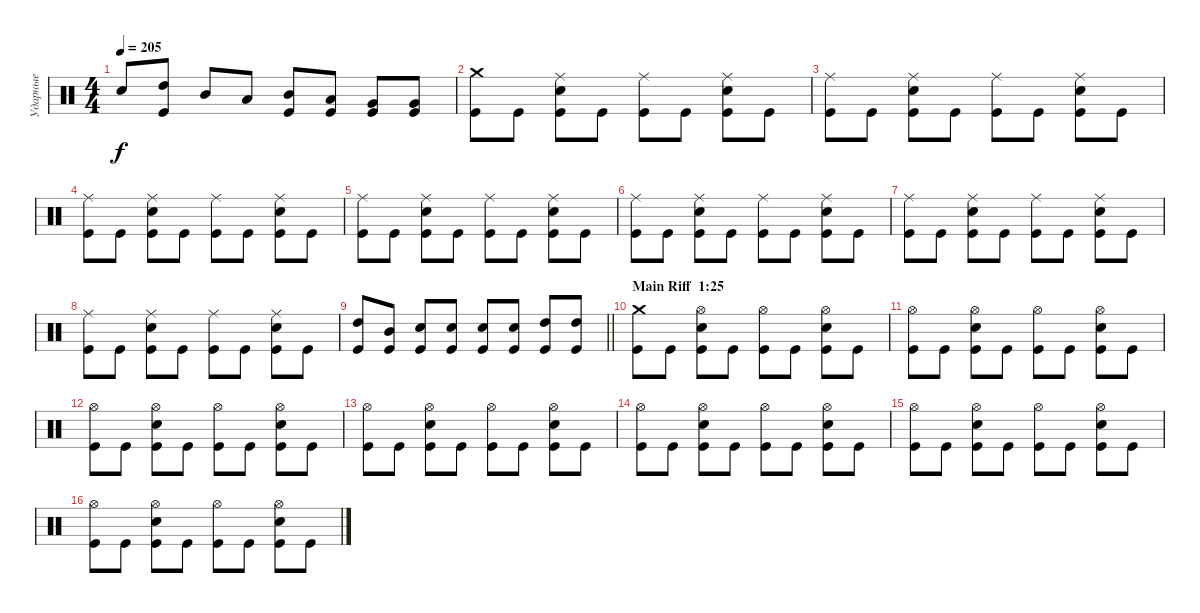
\track ("Ударные" "Ударные") {instrument percussion}
\staff {score}
\articulation defaults
\ts (4 4)
\tempo 205
\clef neutral
\ks c "Snare (hit) 2".8{dy f}
("High Tom (hit)" "Kick (hit)").8 "Mid Tom (hit)".8 "Low Tom (hit)".8 ("Mid Tom (hit)" "Kick (hit)").8 ("Low Tom (hit)" "Kick (hit)").8 ("Very Low Tom (hit)" "Kick (hit)").8 ("Very Low Tom (hit)" "Kick (hit)").8 |
("Crash medium (hit)" "Kick (hit)").8 "Kick (hit)".8 ("Ride (middle)" "Snare (hit) 2" "Kick (hit)").8 "Kick (hit)".8 ("Ride (middle)" "Kick (hit)").8 "Kick (hit)".8 ("Ride (middle)" "Snare (hit) 2" "Kick (hit)").8 "Kick (hit)".8 |
("Ride (middle)" "Kick (hit)").8 "Kick (hit)".8 ("Ride (middle)" "Snare (hit) 2" "Kick (hit)").8 "Kick (hit)".8 ("Ride (middle)" "Kick (hit)").8 "Kick (hit)".8 ("Ride (middle)" "Snare (hit) 2" "Kick (hit)").8 "Kick (hit)".8 |
("Ride (middle)" "Kick (hit)").8 "Kick (hit)".8 ("Ride (middle)" "Snare (hit) 2" "Kick (hit)").8 "Kick (hit)".8 ("Ride (middle)" "Kick (hit)").8 "Kick (hit)".8 ("Ride (middle)" "Snare (hit) 2" "Kick (hit)").8 "Kick (hit)".8 |
("Ride (middle)" "Kick (hit)").8 "Kick (hit)".8 ("Ride (middle)" "Snare (hit) 2" "Kick (hit)").8 "Kick (hit)".8 ("Ride (middle)" "Kick (hit)").8 "Kick (hit)".8 ("Ride (middle)" "Snare (hit) 2" "Kick (hit)").8 "Kick (hit)".8 |
("Ride (middle)" "Kick (hit)").8 "Kick (hit)".8 ("Ride (middle)" "Snare (hit) 2" "Kick (hit)").8 "Kick (hit)".8 ("Ride (middle)" "Kick (hit)").8 "Kick (hit)".8 ("Ride (middle)" "Snare (hit) 2" "Kick (hit)").8 "Kick (hit)".8 |
("Ride (middle)" "Kick (hit)").8 "Kick (hit)".8 ("Ride (middle)" "Snare (hit) 2" "Kick (hit)").8 "Kick (hit)".8 ("Ride (middle)" "Kick (hit)").8 "Kick (hit)".8 ("Ride (middle)" "Snare (hit) 2" "Kick (hit)").8 "Kick (hit)".8 |
("Ride (middle)" "Kick (hit)").8 "Kick (hit)".8 ("Ride (middle)" "Snare (hit) 2" "Kick (hit)").8 "Kick (hit)".8 ("Ride (middle)" "Kick (hit)").8 "Kick (hit)".8 ("Ride (middle)" "Snare (hit) 2" "Kick (hit)").8 "Kick (hit)".8 |
\barLineRight lightlight
("High Tom (hit)" "Kick (hit)").8 ("Mid Tom (hit)" "Kick (hit)").8 ("Snare (hit) 2" "Kick (hit)").8 ("Snare (hit) 2" "Kick (hit)").8 ("Snare (hit) 2" "Kick (hit)").8 ("Snare (hit) 2" "Kick (hit)").8 ("High Tom (hit)" "Kick (hit)").8 ("High Tom (hit)" "Kick (hit)").8 |
\section ("" "Main Riff  1:25")
("Crash medium (hit)" "Kick (hit)").8 "Kick (hit)".8 ("Hi-Hat (open)" "Snare (hit) 2" "Kick (hit)").8 "Kick (hit)".8 ("Hi-Hat (open)" "Kick (hit)").8 "Kick (hit)".8 ("Hi-Hat (open)" "Snare (hit) 2" "Kick (hit)").8 "Kick (hit)".8 |
("Hi-Hat (open)" "Kick (hit)").8 "Kick (hit)".8 ("Hi-Hat (open)" "Snare (hit) 2" "Kick (hit)").8 "Kick (hit)".8 ("Hi-Hat (open)" "Kick (hit)").8 "Kick (hit)".8 ("Hi-Hat (open)" "Snare (hit) 2" "Kick (hit)").8 "Kick (hit)".8 |
("Hi-Hat (open)" "Kick (hit)").8 "Kick (hit)".8 ("Hi-Hat (open)" "Snare (hit) 2" "Kick (hit)").8 "Kick (hit)".8 ("Hi-Hat (open)" "Kick (hit)").8 "Kick (hit)".8 ("Hi-Hat (open)" "Snare (hit) 2" "Kick (hit)").8 "Kick (hit)".8 |
("Hi-Hat (open)" "Kick (hit)").8 "Kick (hit)".8 ("Hi-Hat (open)" "Snare (hit) 2" "Kick (hit)").8 "Kick (hit)".8 ("Hi-Hat (open)" "Kick (hit)").8 "Kick (hit)".8 ("Hi-Hat (open)" "Snare (hit) 2" "Kick (hit)").8 "Kick (hit)".8 |
("Hi-Hat (open)" "Kick (hit)").8 "Kick (hit)".8 ("Hi-Hat (open)" "Snare (hit) 2" "Kick (hit)").8 "Kick (hit)".8 ("Hi-Hat (open)" "Kick (hit)").8 "Kick (hit)".8 ("Hi-Hat (open)" "Snare (hit) 2" "Kick (hit)").8 "Kick (hit)".8 |
("Hi-Hat (open)" "Kick (hit)").8 "Kick (hit)".8 ("Hi-Hat (open)" "Snare (hit) 2" "Kick (hit)").8 "Kick (hit)".8 ("Hi-Hat (open)" "Kick (hit)").8 "Kick (hit)".8 ("Hi-Hat (open)" "Snare (hit) 2" "Kick (hit)").8 "Kick (hit)".8 |
("Hi-Hat (open)" "Kick (hit)").8 "Kick (hit)".8 ("Hi-Hat (open)" "Snare (hit) 2" "Kick (hit)").8 "Kick (hit)".8 ("Hi-Hat (open)" "Kick (hit)").8 "Kick (hit)".8 ("Hi-Hat (open)" "Snare (hit) 2" "Kick (hit)").8 "Kick (hit)".8
